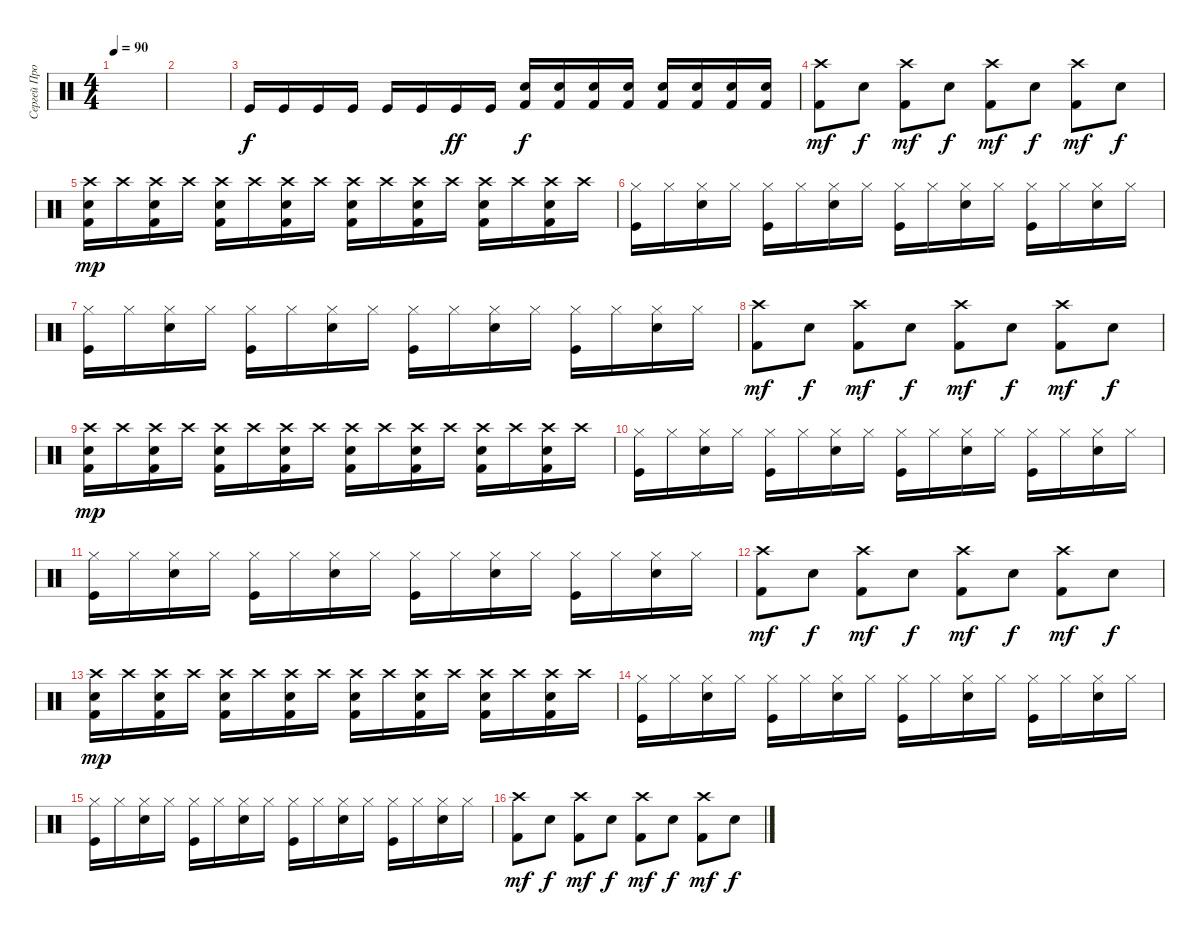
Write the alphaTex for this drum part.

\track ("Сергей Прокофьев" "Сергей Про") {instrument percussion}
\staff {score}
\articulation defaults
\ts (4 4)
\tempo 90
\clef neutral
\ks c
|
|
"Kick (hit)".16{dy f} "Kick (hit)".16 "Kick (hit)".16 "Kick (hit)".16 "Kick (hit)".16 "Kick (hit)".16 "Kick (hit)".16{dy ff} "Kick (hit)".16 ("Electric Snare (hit)" "Kick (hit) 2").16{dy f} ("Electric Snare (hit)" "Kick (hit) 2").16 ("Electric Snare (hit)" "Kick (hit) 2").16 ("Electric Snare (hit)" "Kick (hit) 2").16 ("Electric Snare (hit)" "Kick (hit) 2").16 ("Electric Snare (hit)" "Kick (hit) 2").16 ("Electric Snare (hit)" "Kick (hit) 2").16 ("Electric Snare (hit)" "Kick (hit) 2").16 |
("Crash high (hit)" "Kick (hit) 2").8{dy mf} "Electric Snare (hit)".8{dy f} ("Crash high (hit)" "Kick (hit) 2").8{dy mf} "Electric Snare (hit)".8{dy f} ("Crash high (hit)" "Kick (hit) 2").8{dy mf} "Electric Snare (hit)".8{dy f} ("Crash high (hit)" "Kick (hit) 2").8{dy mf} "Electric Snare (hit)".8{dy f} |
("Crash high (hit)" "Electric Snare (hit)" "Kick (hit) 2").16{dy mp} "Crash high (hit)".16 ("Crash high (hit)" "Electric Snare (hit)" "Kick (hit) 2").16 "Crash high (hit)".16 ("Crash high (hit)" "Electric Snare (hit)" "Kick (hit) 2").16 "Crash high (hit)".16 ("Crash high (hit)" "Electric Snare (hit)" "Kick (hit) 2").16 "Crash high (hit)".16 ("Crash high (hit)" "Electric Snare (hit)" "Kick (hit) 2").16 "Crash high (hit)".16 ("Crash high (hit)" "Electric Snare (hit)" "Kick (hit) 2").16 "Crash high (hit)".16 ("Crash high (hit)" "Electric Snare (hit)" "Kick (hit) 2").16 "Crash high (hit)".16 ("Crash high (hit)" "Electric Snare (hit)" "Kick (hit) 2").16 "Crash high (hit)".16 |
("Hi-Hat (closed)" "Kick (hit)").16 "Hi-Hat (closed)".16 ("Hi-Hat (closed)" "Electric Snare (hit)").16 "Hi-Hat (closed)".16 ("Hi-Hat (closed)" "Kick (hit)").16 "Hi-Hat (closed)".16 ("Hi-Hat (closed)" "Electric Snare (hit)").16 "Hi-Hat (closed)".16 ("Hi-Hat (closed)" "Kick (hit)").16 "Hi-Hat (closed)".16 ("Hi-Hat (closed)" "Electric Snare (hit)").16 "Hi-Hat (closed)".16 ("Hi-Hat (closed)" "Kick (hit)").16 "Hi-Hat (closed)".16 ("Hi-Hat (closed)" "Electric Snare (hit)").16 "Hi-Hat (closed)".16 |
("Hi-Hat (closed)" "Kick (hit)").16 "Hi-Hat (closed)".16 ("Hi-Hat (closed)" "Electric Snare (hit)").16 "Hi-Hat (closed)".16 ("Hi-Hat (closed)" "Kick (hit)").16 "Hi-Hat (closed)".16 ("Hi-Hat (closed)" "Electric Snare (hit)").16 "Hi-Hat (closed)".16 ("Hi-Hat (closed)" "Kick (hit)").16 "Hi-Hat (closed)".16 ("Hi-Hat (closed)" "Electric Snare (hit)").16 "Hi-Hat (closed)".16 ("Hi-Hat (closed)" "Kick (hit)").16 "Hi-Hat (closed)".16 ("Hi-Hat (closed)" "Electric Snare (hit)").16 "Hi-Hat (closed)".16 |
("Crash high (hit)" "Kick (hit) 2").8{dy mf} "Electric Snare (hit)".8{dy f} ("Crash high (hit)" "Kick (hit) 2").8{dy mf} "Electric Snare (hit)".8{dy f} ("Crash high (hit)" "Kick (hit) 2").8{dy mf} "Electric Snare (hit)".8{dy f} ("Crash high (hit)" "Kick (hit) 2").8{dy mf} "Electric Snare (hit)".8{dy f} |
("Crash high (hit)" "Electric Snare (hit)" "Kick (hit) 2").16{dy mp} "Crash high (hit)".16 ("Crash high (hit)" "Electric Snare (hit)" "Kick (hit) 2").16 "Crash high (hit)".16 ("Crash high (hit)" "Electric Snare (hit)" "Kick (hit) 2").16 "Crash high (hit)".16 ("Crash high (hit)" "Electric Snare (hit)" "Kick (hit) 2").16 "Crash high (hit)".16 ("Crash high (hit)" "Electric Snare (hit)" "Kick (hit) 2").16 "Crash high (hit)".16 ("Crash high (hit)" "Electric Snare (hit)" "Kick (hit) 2").16 "Crash high (hit)".16 ("Crash high (hit)" "Electric Snare (hit)" "Kick (hit) 2").16 "Crash high (hit)".16 ("Crash high (hit)" "Electric Snare (hit)" "Kick (hit) 2").16 "Crash high (hit)".16 |
("Hi-Hat (closed)" "Kick (hit)").16 "Hi-Hat (closed)".16 ("Hi-Hat (closed)" "Electric Snare (hit)").16 "Hi-Hat (closed)".16 ("Hi-Hat (closed)" "Kick (hit)").16 "Hi-Hat (closed)".16 ("Hi-Hat (closed)" "Electric Snare (hit)").16 "Hi-Hat (closed)".16 ("Hi-Hat (closed)" "Kick (hit)").16 "Hi-Hat (closed)".16 ("Hi-Hat (closed)" "Electric Snare (hit)").16 "Hi-Hat (closed)".16 ("Hi-Hat (closed)" "Kick (hit)").16 "Hi-Hat (closed)".16 ("Hi-Hat (closed)" "Electric Snare (hit)").16 "Hi-Hat (closed)".16 |
("Hi-Hat (closed)" "Kick (hit)").16 "Hi-Hat (closed)".16 ("Hi-Hat (closed)" "Electric Snare (hit)").16 "Hi-Hat (closed)".16 ("Hi-Hat (closed)" "Kick (hit)").16 "Hi-Hat (closed)".16 ("Hi-Hat (closed)" "Electric Snare (hit)").16 "Hi-Hat (closed)".16 ("Hi-Hat (closed)" "Kick (hit)").16 "Hi-Hat (closed)".16 ("Hi-Hat (closed)" "Electric Snare (hit)").16 "Hi-Hat (closed)".16 ("Hi-Hat (closed)" "Kick (hit)").16 "Hi-Hat (closed)".16 ("Hi-Hat (closed)" "Electric Snare (hit)").16 "Hi-Hat (closed)".16 |
("Crash high (hit)" "Kick (hit) 2").8{dy mf} "Electric Snare (hit)".8{dy f} ("Crash high (hit)" "Kick (hit) 2").8{dy mf} "Electric Snare (hit)".8{dy f} ("Crash high (hit)" "Kick (hit) 2").8{dy mf} "Electric Snare (hit)".8{dy f} ("Crash high (hit)" "Kick (hit) 2").8{dy mf} "Electric Snare (hit)".8{dy f} |
("Crash high (hit)" "Electric Snare (hit)" "Kick (hit) 2").16{dy mp} "Crash high (hit)".16 ("Crash high (hit)" "Electric Snare (hit)" "Kick (hit) 2").16 "Crash high (hit)".16 ("Crash high (hit)" "Electric Snare (hit)" "Kick (hit) 2").16 "Crash high (hit)".16 ("Crash high (hit)" "Electric Snare (hit)" "Kick (hit) 2").16 "Crash high (hit)".16 ("Crash high (hit)" "Electric Snare (hit)" "Kick (hit) 2").16 "Crash high (hit)".16 ("Crash high (hit)" "Electric Snare (hit)" "Kick (hit) 2").16 "Crash high (hit)".16 ("Crash high (hit)" "Electric Snare (hit)" "Kick (hit) 2").16 "Crash high (hit)".16 ("Crash high (hit)" "Electric Snare (hit)" "Kick (hit) 2").16 "Crash high (hit)".16 |
("Hi-Hat (closed)" "Kick (hit)").16 "Hi-Hat (closed)".16 ("Hi-Hat (closed)" "Electric Snare (hit)").16 "Hi-Hat (closed)".16 ("Hi-Hat (closed)" "Kick (hit)").16 "Hi-Hat (closed)".16 ("Hi-Hat (closed)" "Electric Snare (hit)").16 "Hi-Hat (closed)".16 ("Hi-Hat (closed)" "Kick (hit)").16 "Hi-Hat (closed)".16 ("Hi-Hat (closed)" "Electric Snare (hit)").16 "Hi-Hat (closed)".16 ("Hi-Hat (closed)" "Kick (hit)").16 "Hi-Hat (closed)".16 ("Hi-Hat (closed)" "Electric Snare (hit)").16 "Hi-Hat (closed)".16 |
("Hi-Hat (closed)" "Kick (hit)").16 "Hi-Hat (closed)".16 ("Hi-Hat (closed)" "Electric Snare (hit)").16 "Hi-Hat (closed)".16 ("Hi-Hat (closed)" "Kick (hit)").16 "Hi-Hat (closed)".16 ("Hi-Hat (closed)" "Electric Snare (hit)").16 "Hi-Hat (closed)".16 ("Hi-Hat (closed)" "Kick (hit)").16 "Hi-Hat (closed)".16 ("Hi-Hat (closed)" "Electric Snare (hit)").16 "Hi-Hat (closed)".16 ("Hi-Hat (closed)" "Kick (hit)").16 "Hi-Hat (closed)".16 ("Hi-Hat (closed)" "Electric Snare (hit)").16 "Hi-Hat (closed)".16 |
("Crash high (hit)" "Kick (hit) 2").8{dy mf} "Electric Snare (hit)".8{dy f} ("Crash high (hit)" "Kick (hit) 2").8{dy mf} "Electric Snare (hit)".8{dy f} ("Crash high (hit)" "Kick (hit) 2").8{dy mf} "Electric Snare (hit)".8{dy f} ("Crash high (hit)" "Kick (hit) 2").8{dy mf} "Electric Snare (hit)".8{dy f}
